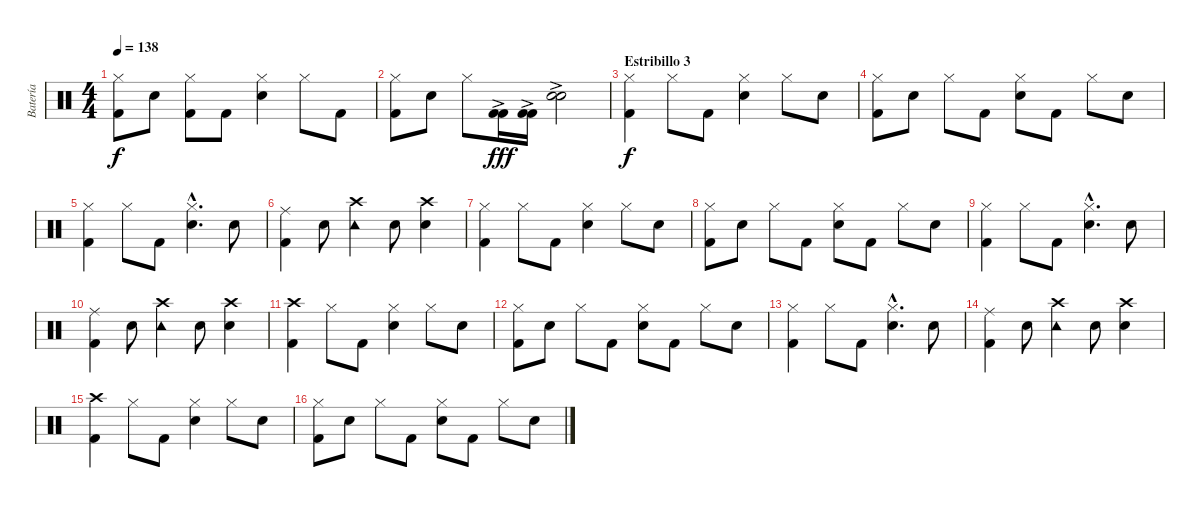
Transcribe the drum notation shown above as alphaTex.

\track ("Batería" "Batería") {instrument percussion}
\staff {score}
\articulation defaults
\ts (4 4)
\tempo 138
\clef neutral
\ks c
("Kick (hit) 2" "Hi-Hat (closed)").8{dy f} "Electric Snare (hit)".8 ("Kick (hit) 2" "Hi-Hat (closed)").8 "Kick (hit) 2".8 ("Electric Snare (hit)" "Hi-Hat (closed)").4 "Hi-Hat (closed)".8 "Kick (hit) 2".8 |
("Kick (hit) 2" "Hi-Hat (closed)").8 "Electric Snare (hit)".8 "Hi-Hat (closed)".8 ("Kick (hit) 2"{ac} "Kick (hit) 2").16{dy fff} ("Kick (hit) 2"{ac} "Kick (hit) 2").16 ("Electric Snare (hit)"{ac} "Electric Snare (hit)").2 |
\section ("" "Estribillo 3")
("Kick (hit) 2" "Hi-Hat (closed)").4{dy f} "Hi-Hat (closed)".8 "Kick (hit) 2".8 ("Electric Snare (hit)" "Hi-Hat (closed)").4 "Hi-Hat (closed)".8 "Electric Snare (hit)".8 |
("Kick (hit) 2" "Hi-Hat (closed)").8 "Electric Snare (hit)".8 "Hi-Hat (closed)".8 "Kick (hit) 2".8 ("Electric Snare (hit)" "Hi-Hat (closed)").8 "Kick (hit) 2".8 "Hi-Hat (closed)".8 "Electric Snare (hit)".8 |
("Kick (hit) 2" "Hi-Hat (closed)").4 "Hi-Hat (closed)".8 "Kick (hit) 2".8 ("Electric Snare (hit)"{hac} "Hi-Hat (closed)"{hac}).4{d} "Electric Snare (hit)".8 |
("Kick (hit) 2" "Ride (middle)").4 "Electric Snare (hit)".8 ("Crash high (hit)" "Tambourine (hit)").4 "Electric Snare (hit)".8 ("Electric Snare (hit)" "Crash high (hit)").4 |
("Kick (hit) 2" "Hi-Hat (closed)").4 "Hi-Hat (closed)".8 "Kick (hit) 2".8 ("Electric Snare (hit)" "Hi-Hat (closed)").4 "Hi-Hat (closed)".8 "Electric Snare (hit)".8 |
("Kick (hit) 2" "Hi-Hat (closed)").8 "Electric Snare (hit)".8 "Hi-Hat (closed)".8 "Kick (hit) 2".8 ("Electric Snare (hit)" "Hi-Hat (closed)").8 "Kick (hit) 2".8 "Hi-Hat (closed)".8 "Electric Snare (hit)".8 |
("Kick (hit) 2" "Hi-Hat (closed)").4 "Hi-Hat (closed)".8 "Kick (hit) 2".8 ("Electric Snare (hit)"{hac} "Hi-Hat (closed)"{hac}).4{d} "Electric Snare (hit)".8 |
("Kick (hit) 2" "Ride (middle)").4 "Electric Snare (hit)".8 ("Crash high (hit)" "Tambourine (hit)").4 "Electric Snare (hit)".8 ("Electric Snare (hit)" "Crash high (hit)").4 |
("Kick (hit) 2" "Crash high (hit)").4 "Hi-Hat (closed)".8 "Kick (hit) 2".8 ("Electric Snare (hit)" "Hi-Hat (closed)").4 "Hi-Hat (closed)".8 "Electric Snare (hit)".8 |
("Kick (hit) 2" "Hi-Hat (closed)").8 "Electric Snare (hit)".8 "Hi-Hat (closed)".8 "Kick (hit) 2".8 ("Electric Snare (hit)" "Hi-Hat (closed)").8 "Kick (hit) 2".8 "Hi-Hat (closed)".8 "Electric Snare (hit)".8 |
("Kick (hit) 2" "Hi-Hat (closed)").4 "Hi-Hat (closed)".8 "Kick (hit) 2".8 ("Electric Snare (hit)"{hac} "Hi-Hat (closed)"{hac}).4{d} "Electric Snare (hit)".8 |
("Kick (hit) 2" "Ride (middle)").4 "Electric Snare (hit)".8 ("Crash high (hit)" "Tambourine (hit)").4 "Electric Snare (hit)".8 ("Electric Snare (hit)" "Crash high (hit)").4 |
("Kick (hit) 2" "Crash high (hit)").4 "Hi-Hat (closed)".8 "Kick (hit) 2".8 ("Electric Snare (hit)" "Hi-Hat (closed)").4 "Hi-Hat (closed)".8 "Electric Snare (hit)".8 |
("Kick (hit) 2" "Hi-Hat (closed)").8 "Electric Snare (hit)".8 "Hi-Hat (closed)".8 "Kick (hit) 2".8 ("Electric Snare (hit)" "Hi-Hat (closed)").8 "Kick (hit) 2".8 "Hi-Hat (closed)".8 "Electric Snare (hit)".8
